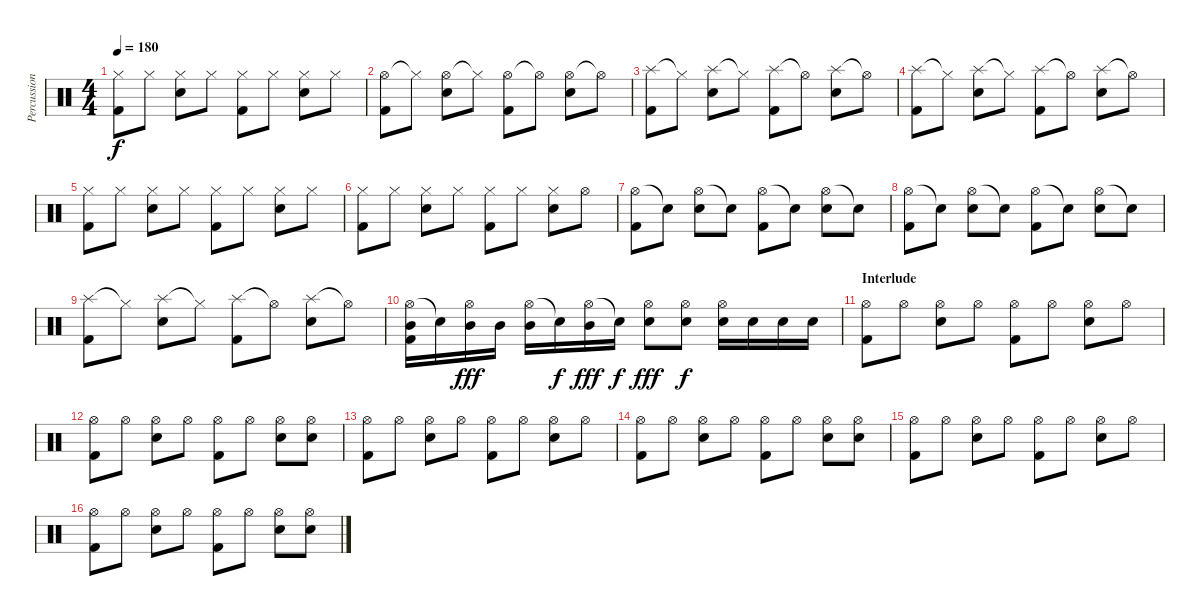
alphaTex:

\track ("Percussion" "Percussion") {instrument percussion}
\staff {score}
\articulation defaults
\ts (4 4)
\tempo 180
\clef neutral
\ks c
("Hi-Hat (closed)" "Kick (hit) 2").8{dy f} "Hi-Hat (closed)".8 ("Hi-Hat (closed)" "Electric Snare (hit)").8 "Hi-Hat (closed)".8 ("Hi-Hat (closed)" "Kick (hit) 2").8 "Hi-Hat (closed)".8 ("Hi-Hat (closed)" "Electric Snare (hit)").8 "Hi-Hat (closed)".8 |
("Hi-Hat (open)" "Kick (hit) 2").8 "Hi-Hat (closed)"{t}.8 ("Hi-Hat (open)" "Electric Snare (hit)").8 "Hi-Hat (closed)"{t}.8 ("Hi-Hat (open)" "Kick (hit) 2").8 "Hi-Hat (open)"{t}.8 ("Hi-Hat (open)" "Electric Snare (hit)").8 "Hi-Hat (open)"{t}.8 |
("Splash (hit)" "Kick (hit) 2").8 "Hi-Hat (closed)"{t}.8 ("Splash (hit)" "Electric Snare (hit)").8 "Hi-Hat (closed)"{t}.8 ("Splash (hit)" "Kick (hit) 2").8 "Hi-Hat (open)"{t}.8 ("Splash (hit)" "Electric Snare (hit)").8 "Hi-Hat (open)"{t}.8 |
("Splash (hit)" "Kick (hit) 2").8 "Hi-Hat (closed)"{t}.8 ("Splash (hit)" "Electric Snare (hit)").8 "Hi-Hat (closed)"{t}.8 ("Splash (hit)" "Kick (hit) 2").8 "Hi-Hat (open)"{t}.8 ("Splash (hit)" "Electric Snare (hit)").8 "Hi-Hat (open)"{t}.8 |
("Hi-Hat (closed)" "Kick (hit) 2").8 "Hi-Hat (closed)".8 ("Hi-Hat (closed)" "Electric Snare (hit)").8 "Hi-Hat (closed)".8 ("Hi-Hat (closed)" "Kick (hit) 2").8 "Hi-Hat (closed)".8 ("Hi-Hat (closed)" "Electric Snare (hit)").8 "Hi-Hat (closed)".8 |
("Hi-Hat (closed)" "Kick (hit) 2").8 "Hi-Hat (closed)".8 ("Hi-Hat (closed)" "Electric Snare (hit)").8 "Hi-Hat (closed)".8 ("Hi-Hat (closed)" "Kick (hit) 2").8 "Hi-Hat (closed)".8 ("Hi-Hat (closed)" "Electric Snare (hit)").8 "Hi-Hat (open)".8 |
("Hi-Hat (open)" "Kick (hit) 2").8 "Snare (hit)"{t}.8 ("Hi-Hat (open)" "Electric Snare (hit)").8 "Snare (hit)"{t}.8 ("Hi-Hat (open)" "Kick (hit) 2").8 "Snare (hit)"{t}.8 ("Hi-Hat (open)" "Electric Snare (hit)").8 "Snare (hit)"{t}.8 |
("Hi-Hat (open)" "Kick (hit) 2").8 "Snare (hit)"{t}.8 ("Hi-Hat (open)" "Electric Snare (hit)").8 "Snare (hit)"{t}.8 ("Hi-Hat (open)" "Kick (hit) 2").8 "Snare (hit)"{t}.8 ("Hi-Hat (open)" "Electric Snare (hit)").8 "Snare (hit)"{t}.8 |
("Splash (hit)" "Kick (hit) 2").8 "Hi-Hat (closed)"{t}.8 ("Splash (hit)" "Electric Snare (hit)").8 "Hi-Hat (closed)"{t}.8 ("Splash (hit)" "Kick (hit) 2").8 "Hi-Hat (open)"{t}.8 ("Splash (hit)" "Electric Snare (hit)").8 "Hi-Hat (open)"{t}.8 |
("Hi-Hat (open)" "Mid Tom (hit)" "Kick (hit) 2").16 "Electric Snare (hit)"{t}.16 ("Hi-Hat (open)" "Mid Tom (hit)").16{dy fff} "Mid Tom (hit)".16 ("Hi-Hat (open)" "Mid Tom (hit)").16 "Snare (hit)"{t}.16{dy f} ("Hi-Hat (open)" "Mid Tom (hit)").16{dy fff} "Snare (hit)"{t}.16{dy f} ("Hi-Hat (open)" "Electric Snare (hit)").8{dy fff} ("Hi-Hat (open)" "Electric Snare (hit)").8{dy f} ("Hi-Hat (open)" "Electric Snare (hit)").16 "Electric Snare (hit)".16 "Electric Snare (hit)".16 "Electric Snare (hit)".16 |
\section ("" "Interlude")
("Hi-Hat (open)" "Kick (hit) 2").8 "Hi-Hat (open)".8 ("Hi-Hat (open)" "Electric Snare (hit)").8 "Hi-Hat (open)".8 ("Hi-Hat (open)" "Kick (hit) 2").8 "Hi-Hat (open)".8 ("Hi-Hat (open)" "Electric Snare (hit)").8 "Hi-Hat (open)".8 |
("Hi-Hat (open)" "Kick (hit) 2").8 "Hi-Hat (open)".8 ("Hi-Hat (open)" "Electric Snare (hit)").8 "Hi-Hat (open)".8 ("Hi-Hat (open)" "Kick (hit) 2").8 "Hi-Hat (open)".8 ("Hi-Hat (open)" "Electric Snare (hit)").8 ("Hi-Hat (open)" "Electric Snare (hit)").8 |
("Hi-Hat (open)" "Kick (hit) 2").8 "Hi-Hat (open)".8 ("Hi-Hat (open)" "Electric Snare (hit)").8 "Hi-Hat (open)".8 ("Hi-Hat (open)" "Kick (hit) 2").8 "Hi-Hat (open)".8 ("Hi-Hat (open)" "Electric Snare (hit)").8 "Hi-Hat (open)".8 |
("Hi-Hat (open)" "Kick (hit) 2").8 "Hi-Hat (open)".8 ("Hi-Hat (open)" "Electric Snare (hit)").8 "Hi-Hat (open)".8 ("Hi-Hat (open)" "Kick (hit) 2").8 "Hi-Hat (open)".8 ("Hi-Hat (open)" "Electric Snare (hit)").8 ("Hi-Hat (open)" "Electric Snare (hit)").8 |
("Hi-Hat (open)" "Kick (hit) 2").8 "Hi-Hat (open)".8 ("Hi-Hat (open)" "Electric Snare (hit)").8 "Hi-Hat (open)".8 ("Hi-Hat (open)" "Kick (hit) 2").8 "Hi-Hat (open)".8 ("Hi-Hat (open)" "Electric Snare (hit)").8 "Hi-Hat (open)".8 |
("Hi-Hat (open)" "Kick (hit) 2").8 "Hi-Hat (open)".8 ("Hi-Hat (open)" "Electric Snare (hit)").8 "Hi-Hat (open)".8 ("Hi-Hat (open)" "Kick (hit) 2").8 "Hi-Hat (open)".8 ("Hi-Hat (open)" "Electric Snare (hit)").8 ("Hi-Hat (open)" "Electric Snare (hit)").8
